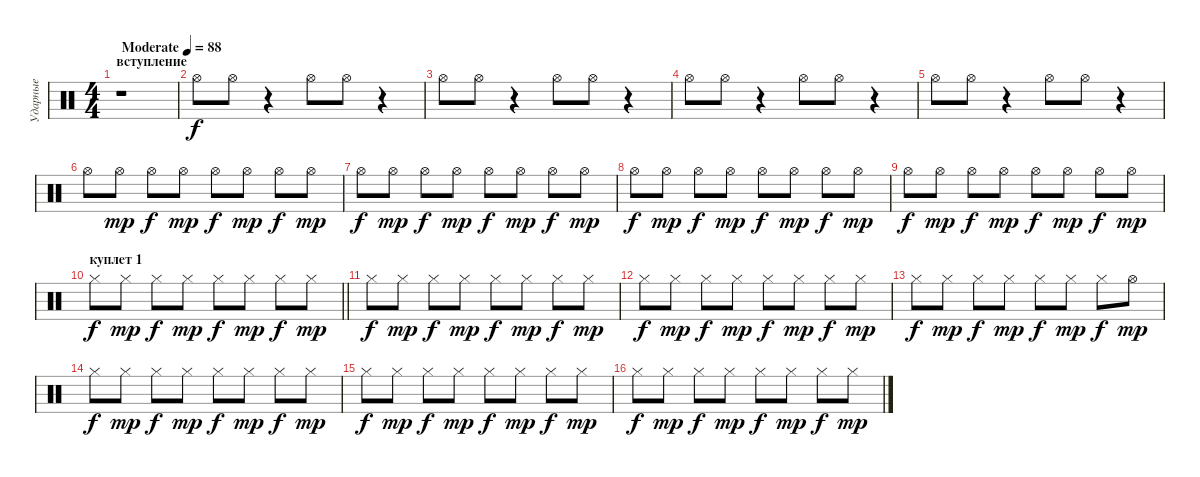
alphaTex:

\track ("Ударные" "Ударные") {instrument percussion}
\staff {score}
\articulation defaults
\ts (4 4)
\section ("" "вступление")
\tempo (88 "Moderate")
\clef neutral
\ks c
r.1{dy f} |
\section ("" "")
"Hi-Hat (open)".8 "Hi-Hat (open)".8 r.4 "Hi-Hat (open)".8 "Hi-Hat (open)".8 r.4 |
"Hi-Hat (open)".8 "Hi-Hat (open)".8 r.4 "Hi-Hat (open)".8 "Hi-Hat (open)".8 r.4 |
"Hi-Hat (open)".8 "Hi-Hat (open)".8 r.4 "Hi-Hat (open)".8 "Hi-Hat (open)".8 r.4 |
"Hi-Hat (open)".8 "Hi-Hat (open)".8 r.4 "Hi-Hat (open)".8 "Hi-Hat (open)".8 r.4 |
"Hi-Hat (open)".8 "Hi-Hat (open)".8{dy mp} "Hi-Hat (open)".8{dy f} "Hi-Hat (open)".8{dy mp} "Hi-Hat (open)".8{dy f} "Hi-Hat (open)".8{dy mp} "Hi-Hat (open)".8{dy f} "Hi-Hat (open)".8{dy mp} |
"Hi-Hat (open)".8{dy f} "Hi-Hat (open)".8{dy mp} "Hi-Hat (open)".8{dy f} "Hi-Hat (open)".8{dy mp} "Hi-Hat (open)".8{dy f} "Hi-Hat (open)".8{dy mp} "Hi-Hat (open)".8{dy f} "Hi-Hat (open)".8{dy mp} |
"Hi-Hat (open)".8{dy f} "Hi-Hat (open)".8{dy mp} "Hi-Hat (open)".8{dy f} "Hi-Hat (open)".8{dy mp} "Hi-Hat (open)".8{dy f} "Hi-Hat (open)".8{dy mp} "Hi-Hat (open)".8{dy f} "Hi-Hat (open)".8{dy mp} |
"Hi-Hat (open)".8{dy f} "Hi-Hat (open)".8{dy mp} "Hi-Hat (open)".8{dy f} "Hi-Hat (open)".8{dy mp} "Hi-Hat (open)".8{dy f} "Hi-Hat (open)".8{dy mp} "Hi-Hat (open)".8{dy f} "Hi-Hat (open)".8{dy mp} |
\section ("" "куплет 1")
\barLineRight lightlight "Hi-Hat (closed)".8{dy f} "Hi-Hat (closed)".8{dy mp} "Hi-Hat (closed)".8{dy f} "Hi-Hat (closed)".8{dy mp} "Hi-Hat (closed)".8{dy f} "Hi-Hat (closed)".8{dy mp} "Hi-Hat (closed)".8{dy f} "Hi-Hat (closed)".8{dy mp}
|
"Hi-Hat (closed)".8{dy f} "Hi-Hat (closed)".8{dy mp} "Hi-Hat (closed)".8{dy f} "Hi-Hat (closed)".8{dy mp} "Hi-Hat (closed)".8{dy f} "Hi-Hat (closed)".8{dy mp} "Hi-Hat (closed)".8{dy f} "Hi-Hat (closed)".8{dy mp} |
"Hi-Hat (closed)".8{dy f} "Hi-Hat (closed)".8{dy mp} "Hi-Hat (closed)".8{dy f} "Hi-Hat (closed)".8{dy mp} "Hi-Hat (closed)".8{dy f} "Hi-Hat (closed)".8{dy mp} "Hi-Hat (closed)".8{dy f} "Hi-Hat (closed)".8{dy mp} |
"Hi-Hat (closed)".8{dy f} "Hi-Hat (closed)".8{dy mp} "Hi-Hat (closed)".8{dy f} "Hi-Hat (closed)".8{dy mp} "Hi-Hat (closed)".8{dy f} "Hi-Hat (closed)".8{dy mp} "Hi-Hat (closed)".8{dy f} "Hi-Hat (open)".8{dy mp} |
"Hi-Hat (closed)".8{dy f} "Hi-Hat (closed)".8{dy mp} "Hi-Hat (closed)".8{dy f} "Hi-Hat (closed)".8{dy mp} "Hi-Hat (closed)".8{dy f} "Hi-Hat (closed)".8{dy mp} "Hi-Hat (closed)".8{dy f} "Hi-Hat (closed)".8{dy mp} |
"Hi-Hat (closed)".8{dy f} "Hi-Hat (closed)".8{dy mp} "Hi-Hat (closed)".8{dy f} "Hi-Hat (closed)".8{dy mp} "Hi-Hat (closed)".8{dy f} "Hi-Hat (closed)".8{dy mp} "Hi-Hat (closed)".8{dy f} "Hi-Hat (closed)".8{dy mp} |
"Hi-Hat (closed)".8{dy f} "Hi-Hat (closed)".8{dy mp} "Hi-Hat (closed)".8{dy f} "Hi-Hat (closed)".8{dy mp} "Hi-Hat (closed)".8{dy f} "Hi-Hat (closed)".8{dy mp} "Hi-Hat (closed)".8{dy f} "Hi-Hat (closed)".8{dy mp}
